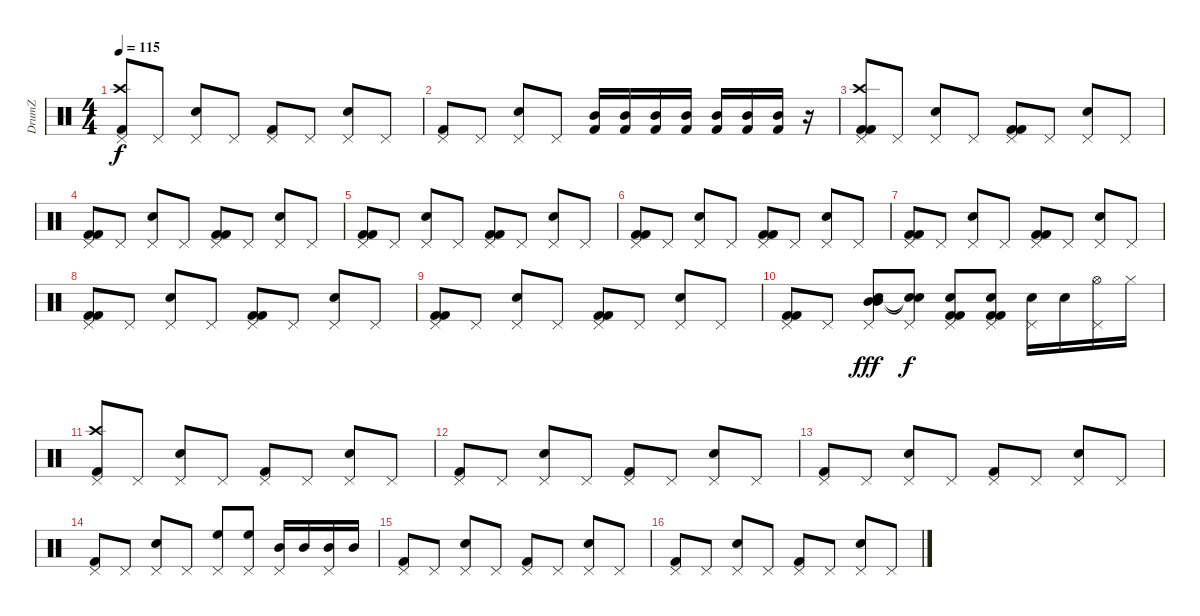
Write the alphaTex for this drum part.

\track ("DrumZ" "DrumZ") {instrument percussion}
\staff {score}
\articulation defaults
\ts (4 4)
\tempo 115
\clef neutral
\ks c
("Pedal Hi-Hat (hit)" "Crash high (hit)" "Kick (hit) 2").8{dy f} "Pedal Hi-Hat (hit)".8 ("Pedal Hi-Hat (hit)" "Electric Snare (hit)").8 "Pedal Hi-Hat (hit)".8 ("Pedal Hi-Hat (hit)" "Kick (hit) 2").8 "Pedal Hi-Hat (hit)".8 ("Pedal Hi-Hat (hit)" "Electric Snare (hit)").8 "Pedal Hi-Hat (hit)".8 |
("Pedal Hi-Hat (hit)" "Kick (hit) 2").8 "Pedal Hi-Hat (hit)".8 ("Pedal Hi-Hat (hit)" "Electric Snare (hit)").8 "Pedal Hi-Hat (hit)".8 ("Kick (hit) 2" "Mid Tom (hit)").16 ("Kick (hit) 2" "Mid Tom (hit)").16 ("Kick (hit) 2" "Mid Tom (hit)").16 ("Kick (hit) 2" "Mid Tom (hit)").16 ("Kick (hit) 2" "Mid Tom (hit)").16 ("Kick (hit) 2" "Mid Tom (hit)").16 ("Kick (hit) 2" "Mid Tom (hit)").16 r.16 |
("Pedal Hi-Hat (hit)" "Crash high (hit)" "Kick (hit) 2" "Kick (hit) 2").8 "Pedal Hi-Hat (hit)".8 ("Pedal Hi-Hat (hit)" "Electric Snare (hit)").8 "Pedal Hi-Hat (hit)".8 ("Pedal Hi-Hat (hit)" "Kick (hit) 2" "Kick (hit) 2").8 "Pedal Hi-Hat (hit)".8 ("Pedal Hi-Hat (hit)" "Electric Snare (hit)").8 "Pedal Hi-Hat (hit)".8 |
("Pedal Hi-Hat (hit)" "Kick (hit) 2" "Kick (hit) 2").8 "Pedal Hi-Hat (hit)".8 ("Pedal Hi-Hat (hit)" "Electric Snare (hit)").8 "Pedal Hi-Hat (hit)".8 ("Pedal Hi-Hat (hit)" "Kick (hit) 2" "Kick (hit) 2").8 "Pedal Hi-Hat (hit)".8 ("Pedal Hi-Hat (hit)" "Electric Snare (hit)").8 "Pedal Hi-Hat (hit)".8 |
("Pedal Hi-Hat (hit)" "Kick (hit) 2" "Kick (hit) 2").8 "Pedal Hi-Hat (hit)".8 ("Pedal Hi-Hat (hit)" "Electric Snare (hit)").8 "Pedal Hi-Hat (hit)".8 ("Pedal Hi-Hat (hit)" "Kick (hit) 2" "Kick (hit) 2").8 "Pedal Hi-Hat (hit)".8 ("Pedal Hi-Hat (hit)" "Electric Snare (hit)").8 "Pedal Hi-Hat (hit)".8 |
("Pedal Hi-Hat (hit)" "Kick (hit) 2" "Kick (hit) 2").8 "Pedal Hi-Hat (hit)".8 ("Pedal Hi-Hat (hit)" "Electric Snare (hit)").8 "Pedal Hi-Hat (hit)".8 ("Pedal Hi-Hat (hit)" "Kick (hit) 2" "Kick (hit) 2").8 "Pedal Hi-Hat (hit)".8 ("Pedal Hi-Hat (hit)" "Electric Snare (hit)").8 "Pedal Hi-Hat (hit)".8 |
("Pedal Hi-Hat (hit)" "Kick (hit) 2" "Kick (hit) 2").8 "Pedal Hi-Hat (hit)".8 ("Pedal Hi-Hat (hit)" "Electric Snare (hit)").8 "Pedal Hi-Hat (hit)".8 ("Pedal Hi-Hat (hit)" "Kick (hit) 2" "Kick (hit) 2").8 "Pedal Hi-Hat (hit)".8 ("Pedal Hi-Hat (hit)" "Electric Snare (hit)").8 "Pedal Hi-Hat (hit)".8 |
("Pedal Hi-Hat (hit)" "Kick (hit) 2" "Kick (hit) 2").8 "Pedal Hi-Hat (hit)".8 ("Pedal Hi-Hat (hit)" "Electric Snare (hit)").8 "Pedal Hi-Hat (hit)".8 ("Pedal Hi-Hat (hit)" "Kick (hit) 2" "Kick (hit) 2").8 "Pedal Hi-Hat (hit)".8 ("Pedal Hi-Hat (hit)" "Electric Snare (hit)").8 "Pedal Hi-Hat (hit)".8 |
("Pedal Hi-Hat (hit)" "Kick (hit) 2" "Kick (hit) 2").8 "Pedal Hi-Hat (hit)".8 ("Pedal Hi-Hat (hit)" "Electric Snare (hit)").8 "Pedal Hi-Hat (hit)".8 ("Pedal Hi-Hat (hit)" "Kick (hit) 2" "Kick (hit) 2").8 "Pedal Hi-Hat (hit)".8 ("Pedal Hi-Hat (hit)" "Electric Snare (hit)").8 "Pedal Hi-Hat (hit)".8 |
("Pedal Hi-Hat (hit)" "Kick (hit) 2" "Kick (hit) 2").8 "Pedal Hi-Hat (hit)".8 ("Pedal Hi-Hat (hit)" "Electric Snare (hit)" "Mid Tom (hit)" "Mid Tom (hit)").8{dy fff} ("Pedal Hi-Hat (hit)" "Snare (hit)"{t} "Snare (hit)"{t}).8{dy f} ("Pedal Hi-Hat (hit)" "Snare (hit) 2" "Kick (hit) 2" "Kick (hit) 2").8 ("Pedal Hi-Hat (hit)" "Snare (hit) 2" "Kick (hit) 2" "Kick (hit) 2").8 ("Pedal Hi-Hat (hit)" "Electric Snare (hit)").16 "Electric Snare (hit)".16 ("Pedal Hi-Hat (hit)" "Hi-Hat (open)").16 "Hi-Hat (closed)".16 |
("Pedal Hi-Hat (hit)" "Crash high (hit)" "Kick (hit) 2").8 "Pedal Hi-Hat (hit)".8 ("Pedal Hi-Hat (hit)" "Electric Snare (hit)").8 "Pedal Hi-Hat (hit)".8 ("Pedal Hi-Hat (hit)" "Kick (hit) 2").8 "Pedal Hi-Hat (hit)".8 ("Pedal Hi-Hat (hit)" "Electric Snare (hit)").8 "Pedal Hi-Hat (hit)".8 |
("Pedal Hi-Hat (hit)" "Kick (hit) 2").8 "Pedal Hi-Hat (hit)".8 ("Pedal Hi-Hat (hit)" "Electric Snare (hit)").8 "Pedal Hi-Hat (hit)".8 ("Pedal Hi-Hat (hit)" "Kick (hit) 2").8 "Pedal Hi-Hat (hit)".8 ("Pedal Hi-Hat (hit)" "Electric Snare (hit)").8 "Pedal Hi-Hat (hit)".8 |
("Pedal Hi-Hat (hit)" "Kick (hit) 2").8 "Pedal Hi-Hat (hit)".8 ("Pedal Hi-Hat (hit)" "Electric Snare (hit)").8 "Pedal Hi-Hat (hit)".8 ("Pedal Hi-Hat (hit)" "Kick (hit) 2").8 "Pedal Hi-Hat (hit)".8 ("Pedal Hi-Hat (hit)" "Electric Snare (hit)").8 "Pedal Hi-Hat (hit)".8 |
("Pedal Hi-Hat (hit)" "Kick (hit) 2").8 "Pedal Hi-Hat (hit)".8 ("Pedal Hi-Hat (hit)" "Electric Snare (hit)").8 "Pedal Hi-Hat (hit)".8 ("Pedal Hi-Hat (hit)" "High Floor Tom (hit)").8 ("Pedal Hi-Hat (hit)" "High Floor Tom (hit)").8 ("Pedal Hi-Hat (hit)" "Mid Tom (hit)").16 "Mid Tom (hit)".16 ("Pedal Hi-Hat (hit)" "Mid Tom (hit)").16 "Mid Tom (hit)".16 |
("Pedal Hi-Hat (hit)" "Kick (hit) 2").8 "Pedal Hi-Hat (hit)".8 ("Pedal Hi-Hat (hit)" "Electric Snare (hit)").8 "Pedal Hi-Hat (hit)".8 ("Pedal Hi-Hat (hit)" "Kick (hit) 2").8 "Pedal Hi-Hat (hit)".8 ("Pedal Hi-Hat (hit)" "Electric Snare (hit)").8 "Pedal Hi-Hat (hit)".8 |
("Pedal Hi-Hat (hit)" "Kick (hit) 2").8 "Pedal Hi-Hat (hit)".8 ("Pedal Hi-Hat (hit)" "Electric Snare (hit)").8 "Pedal Hi-Hat (hit)".8 ("Pedal Hi-Hat (hit)" "Kick (hit) 2").8 "Pedal Hi-Hat (hit)".8 ("Pedal Hi-Hat (hit)" "Electric Snare (hit)").8 "Pedal Hi-Hat (hit)".8
